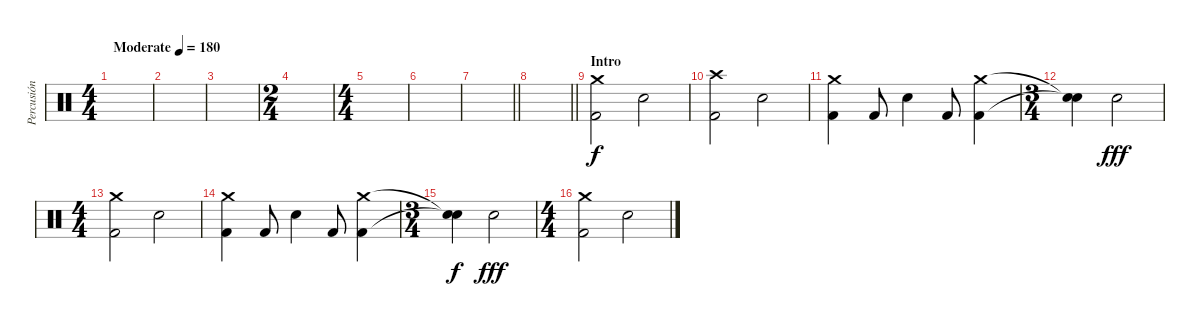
\track ("Percusión" "Percusión") {instrument percussion}
\staff {score}
\articulation defaults
\ts (4 4)
\tempo (180 "Moderate")
\clef neutral
\ks c
|
|
|
\ts (2 4)
|
\ts (4 4)
|
|
\barLineRight lightlight
|
\barLineRight lightlight
|
\section ("" "Intro")
("Crash medium (hit)" "Kick (hit) 2").2 "Electric Snare (hit)".2 |
("Crash high (hit)" "Kick (hit) 2").2 "Electric Snare (hit)".2 |
("Crash medium (hit)" "Kick (hit) 2").4 "Kick (hit) 2".8 "Electric Snare (hit)".4 "Kick (hit) 2".8 ("Crash medium (hit)" "Kick (hit) 2").4 |
\ts (3 4)
("Snare (hit)"{t} "Snare (hit)"{t}).4{dy f} "Electric Snare (hit)".2{dy fff} |
\ts (4 4)
("Crash medium (hit)" "Kick (hit) 2").2 "Electric Snare (hit)".2 |
("Crash medium (hit)" "Kick (hit) 2").4 "Kick (hit) 2".8 "Electric Snare (hit)".4 "Kick (hit) 2".8 ("Crash medium (hit)" "Kick (hit) 2").4 |
\ts (3 4)
("Snare (hit)"{t} "Snare (hit)"{t}).4{dy f} "Electric Snare (hit)".2{dy fff} |
\ts (4 4)
("Crash medium (hit)" "Kick (hit) 2").2 "Electric Snare (hit)".2
